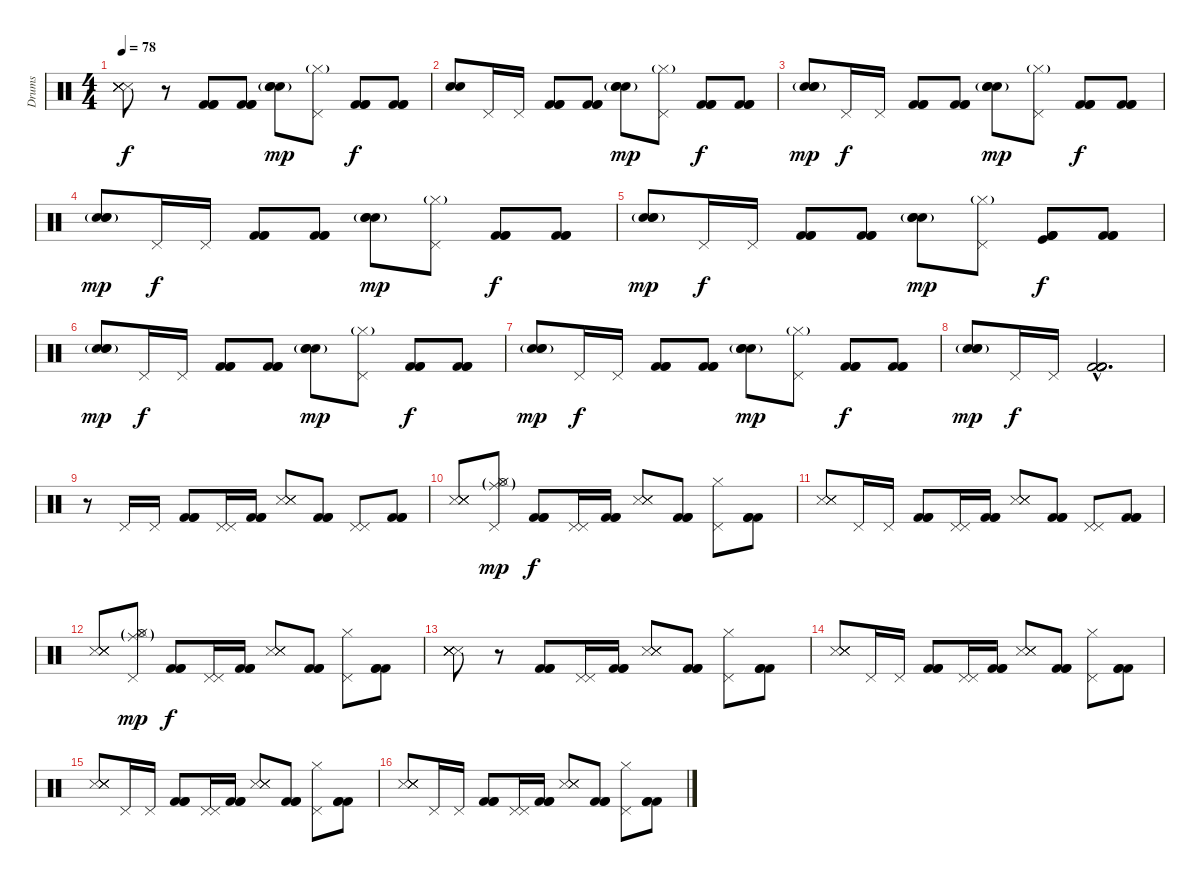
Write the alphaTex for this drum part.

\track ("Drums" "Drums") {instrument percussion}
\staff {score}
\articulation defaults
\ts (4 4)
\tempo 78
\clef neutral
\ks c
("Metronome (hit)" "Metronome (hit)" "Metronome (hit)" "Snare (side stick) 3" "Snare (side stick) 3" "Snare (side stick) 3").8{dy f} r.8 ("Kick (hit) 2" "Kick (hit) 2" "Kick (hit) 2").8 ("Kick (hit) 2" "Kick (hit) 2" "Kick (hit) 2").8 ("Electric Snare (hit)" "Electric Snare (hit)" "Snare (hit) 2"{g}).8{dy mp} ("Pedal Hi-Hat (hit)" "Hi-Hat (closed)"{g}).8 ("Kick (hit) 2" "Kick (hit) 2" "Kick (hit) 2").8{dy f} ("Kick (hit) 2" "Kick (hit) 2" "Kick (hit) 2").8 |
("Electric Snare (hit)" "Electric Snare (hit)").8 "Pedal Hi-Hat (hit)".16 "Pedal Hi-Hat (hit)".16 ("Kick (hit) 2" "Kick (hit) 2" "Kick (hit) 2").8 ("Kick (hit) 2" "Kick (hit) 2" "Kick (hit) 2").8 ("Electric Snare (hit)" "Electric Snare (hit)" "Snare (hit) 2"{g}).8{dy mp} ("Pedal Hi-Hat (hit)" "Hi-Hat (closed)"{g}).8 ("Kick (hit) 2" "Kick (hit) 2" "Kick (hit) 2").8{dy f} ("Kick (hit) 2" "Kick (hit) 2" "Kick (hit) 2").8 |
("Electric Snare (hit)" "Electric Snare (hit)" "Snare (hit) 2"{g}).8{dy mp} "Pedal Hi-Hat (hit)".16{dy f} "Pedal Hi-Hat (hit)".16 ("Kick (hit) 2" "Kick (hit) 2" "Kick (hit) 2").8 ("Kick (hit) 2" "Kick (hit) 2" "Kick (hit) 2").8 ("Electric Snare (hit)" "Electric Snare (hit)" "Snare (hit) 2"{g}).8{dy mp} ("Pedal Hi-Hat (hit)" "Hi-Hat (closed)"{g}).8 ("Kick (hit) 2" "Kick (hit) 2" "Kick (hit) 2").8{dy f} ("Kick (hit) 2" "Kick (hit) 2" "Kick (hit) 2").8 |
("Electric Snare (hit)" "Electric Snare (hit)" "Snare (hit) 2"{g}).8{dy mp} "Pedal Hi-Hat (hit)".16{dy f} "Pedal Hi-Hat (hit)".16 ("Kick (hit) 2" "Kick (hit) 2" "Kick (hit) 2").8 ("Kick (hit) 2" "Kick (hit) 2" "Kick (hit) 2").8 ("Electric Snare (hit)" "Electric Snare (hit)" "Snare (hit) 2"{g}).8{dy mp} ("Pedal Hi-Hat (hit)" "Hi-Hat (closed)"{g}).8 ("Kick (hit) 2" "Kick (hit) 2" "Kick (hit) 2").8{dy f} ("Kick (hit) 2" "Kick (hit) 2" "Kick (hit) 2").8 |
("Electric Snare (hit)" "Electric Snare (hit)" "Snare (hit) 2"{g}).8{dy mp} "Pedal Hi-Hat (hit)".16{dy f} "Pedal Hi-Hat (hit)".16 ("Kick (hit) 2" "Kick (hit) 2" "Kick (hit) 2").8 ("Kick (hit) 2" "Kick (hit) 2" "Kick (hit) 2").8 ("Electric Snare (hit)" "Electric Snare (hit)" "Snare (hit) 2"{g}).8{dy mp} ("Pedal Hi-Hat (hit)" "Hi-Hat (closed)"{g}).8 ("Kick (hit) 2" "Kick (hit) 2" "Kick (hit) 2" "Kick (hit)").8{dy f} ("Kick (hit) 2" "Kick (hit) 2" "Kick (hit) 2").8 |
("Electric Snare (hit)" "Electric Snare (hit)" "Snare (hit) 2"{g}).8{dy mp} "Pedal Hi-Hat (hit)".16{dy f} "Pedal Hi-Hat (hit)".16 ("Kick (hit) 2" "Kick (hit) 2" "Kick (hit) 2").8 ("Kick (hit) 2" "Kick (hit) 2" "Kick (hit) 2").8 ("Electric Snare (hit)" "Electric Snare (hit)" "Snare (hit) 2"{g}).8{dy mp} ("Pedal Hi-Hat (hit)" "Hi-Hat (closed)"{g}).8 ("Kick (hit) 2" "Kick (hit) 2" "Kick (hit) 2").8{dy f} ("Kick (hit) 2" "Kick (hit) 2" "Kick (hit) 2").8 |
("Electric Snare (hit)" "Electric Snare (hit)" "Snare (hit) 2"{g}).8{dy mp} "Pedal Hi-Hat (hit)".16{dy f} "Pedal Hi-Hat (hit)".16 ("Kick (hit) 2" "Kick (hit) 2" "Kick (hit) 2").8 ("Kick (hit) 2" "Kick (hit) 2" "Kick (hit) 2").8 ("Electric Snare (hit)" "Electric Snare (hit)" "Snare (hit) 2"{g}).8{dy mp} ("Pedal Hi-Hat (hit)" "Hi-Hat (closed)"{g}).8 ("Kick (hit) 2" "Kick (hit) 2" "Kick (hit) 2").8{dy f} ("Kick (hit) 2" "Kick (hit) 2" "Kick (hit) 2").8 |
("Electric Snare (hit)" "Electric Snare (hit)" "Snare (hit) 2"{g}).8{dy mp} "Pedal Hi-Hat (hit)".16{dy f} "Pedal Hi-Hat (hit)".16 ("Kick (hit) 2"{hac} "Kick (hit) 2"{hac} "Kick (hit) 2"{hac} "Kick (hit) 2"{hac}).2{d} |
r.8 "Pedal Hi-Hat (hit)".16 "Pedal Hi-Hat (hit)".16 ("Kick (hit) 2" "Kick (hit) 2" "Kick (hit) 2").8 ("Pedal Hi-Hat (hit)" "Pedal Hi-Hat (hit)").16 ("Kick (hit) 2" "Kick (hit) 2" "Kick (hit) 2").16 ("Metronome (hit)" "Metronome (hit)" "Metronome (hit)" "Snare (side stick) 3").8 ("Kick (hit) 2" "Kick (hit) 2" "Kick (hit) 2").8 ("Pedal Hi-Hat (hit)" "Pedal Hi-Hat (hit)").8 ("Kick (hit) 2" "Kick (hit) 2" "Kick (hit) 2").8 |
("Metronome (hit)" "Metronome (hit)" "Metronome (hit)" "Metronome (hit)" "Snare (side stick) 3").8 ("Pedal Hi-Hat (hit)" "Hi-Hat (closed)" "Hi-Hat (open)"{g} "Ride (middle)"{g}).8{dy mp} ("Kick (hit) 2" "Kick (hit) 2" "Kick (hit) 2").8{dy f} ("Pedal Hi-Hat (hit)" "Pedal Hi-Hat (hit)").16 ("Kick (hit) 2" "Kick (hit) 2" "Kick (hit) 2").16 ("Metronome (hit)" "Metronome (hit)" "Metronome (hit)" "Snare (side stick) 3").8 ("Kick (hit) 2" "Kick (hit) 2" "Kick (hit) 2").8 ("Pedal Hi-Hat (hit)" "Hi-Hat (closed)").8 ("Kick (hit) 2" "Kick (hit) 2" "Kick (hit) 2").8 |
("Metronome (hit)" "Metronome (hit)" "Metronome (hit)" "Snare (side stick) 3").8 "Pedal Hi-Hat (hit)".16 "Pedal Hi-Hat (hit)".16 ("Kick (hit) 2" "Kick (hit) 2" "Kick (hit) 2").8 ("Pedal Hi-Hat (hit)" "Pedal Hi-Hat (hit)").16 ("Kick (hit) 2" "Kick (hit) 2" "Kick (hit) 2").16 ("Metronome (hit)" "Metronome (hit)" "Metronome (hit)" "Snare (side stick) 3").8 ("Kick (hit) 2" "Kick (hit) 2" "Kick (hit) 2").8 ("Pedal Hi-Hat (hit)" "Pedal Hi-Hat (hit)").8 ("Kick (hit) 2" "Kick (hit) 2" "Kick (hit) 2").8 |
("Metronome (hit)" "Metronome (hit)" "Metronome (hit)" "Metronome (hit)" "Snare (side stick) 3").8 ("Pedal Hi-Hat (hit)" "Hi-Hat (closed)" "Hi-Hat (open)"{g} "Ride (middle)"{g}).8{dy mp} ("Kick (hit) 2" "Kick (hit) 2" "Kick (hit) 2").8{dy f} ("Pedal Hi-Hat (hit)" "Pedal Hi-Hat (hit)").16 ("Kick (hit) 2" "Kick (hit) 2" "Kick (hit) 2").16 ("Metronome (hit)" "Metronome (hit)" "Metronome (hit)" "Snare (side stick) 3").8 ("Kick (hit) 2" "Kick (hit) 2" "Kick (hit) 2").8 ("Pedal Hi-Hat (hit)" "Hi-Hat (closed)").8 ("Kick (hit) 2" "Kick (hit) 2" "Kick (hit) 2").8 |
("Metronome (hit)" "Metronome (hit)" "Metronome (hit)" "Metronome (hit)" "Snare (side stick) 3" "Snare (side stick) 3").8 r.8 ("Kick (hit) 2" "Kick (hit) 2" "Kick (hit) 2").8 ("Pedal Hi-Hat (hit)" "Pedal Hi-Hat (hit)").16 ("Kick (hit) 2" "Kick (hit) 2" "Kick (hit) 2").16 ("Metronome (hit)" "Metronome (hit)" "Metronome (hit)" "Snare (side stick) 3").8 ("Kick (hit) 2" "Kick (hit) 2" "Kick (hit) 2").8 ("Pedal Hi-Hat (hit)" "Hi-Hat (closed)").8 ("Kick (hit) 2" "Kick (hit) 2" "Kick (hit) 2").8 |
("Metronome (hit)" "Metronome (hit)" "Metronome (hit)" "Metronome (hit)" "Snare (side stick) 3").8 "Pedal Hi-Hat (hit)".16 "Pedal Hi-Hat (hit)".16 ("Kick (hit) 2" "Kick (hit) 2" "Kick (hit) 2").8 ("Pedal Hi-Hat (hit)" "Pedal Hi-Hat (hit)").16 ("Kick (hit) 2" "Kick (hit) 2" "Kick (hit) 2").16 ("Metronome (hit)" "Metronome (hit)" "Metronome (hit)" "Snare (side stick) 3").8 ("Kick (hit) 2" "Kick (hit) 2" "Kick (hit) 2").8 ("Pedal Hi-Hat (hit)" "Hi-Hat (closed)").8 ("Kick (hit) 2" "Kick (hit) 2" "Kick (hit) 2").8 |
("Metronome (hit)" "Metronome (hit)" "Metronome (hit)" "Metronome (hit)" "Snare (side stick) 3").8 "Pedal Hi-Hat (hit)".16 "Pedal Hi-Hat (hit)".16 ("Kick (hit) 2" "Kick (hit) 2" "Kick (hit) 2").8 ("Pedal Hi-Hat (hit)" "Pedal Hi-Hat (hit)").16 ("Kick (hit) 2" "Kick (hit) 2" "Kick (hit) 2").16 ("Metronome (hit)" "Metronome (hit)" "Metronome (hit)" "Snare (side stick) 3").8 ("Kick (hit) 2" "Kick (hit) 2" "Kick (hit) 2").8 ("Pedal Hi-Hat (hit)" "Hi-Hat (closed)").8 ("Kick (hit) 2" "Kick (hit) 2" "Kick (hit) 2").8 |
("Metronome (hit)" "Metronome (hit)" "Metronome (hit)" "Metronome (hit)" "Snare (side stick) 3").8 "Pedal Hi-Hat (hit)".16 "Pedal Hi-Hat (hit)".16 ("Kick (hit) 2" "Kick (hit) 2" "Kick (hit) 2").8 ("Pedal Hi-Hat (hit)" "Pedal Hi-Hat (hit)").16 ("Kick (hit) 2" "Kick (hit) 2" "Kick (hit) 2").16 ("Metronome (hit)" "Metronome (hit)" "Metronome (hit)" "Snare (side stick) 3").8 ("Kick (hit) 2" "Kick (hit) 2" "Kick (hit) 2").8 ("Pedal Hi-Hat (hit)" "Hi-Hat (closed)").8 ("Kick (hit) 2" "Kick (hit) 2" "Kick (hit) 2").8
